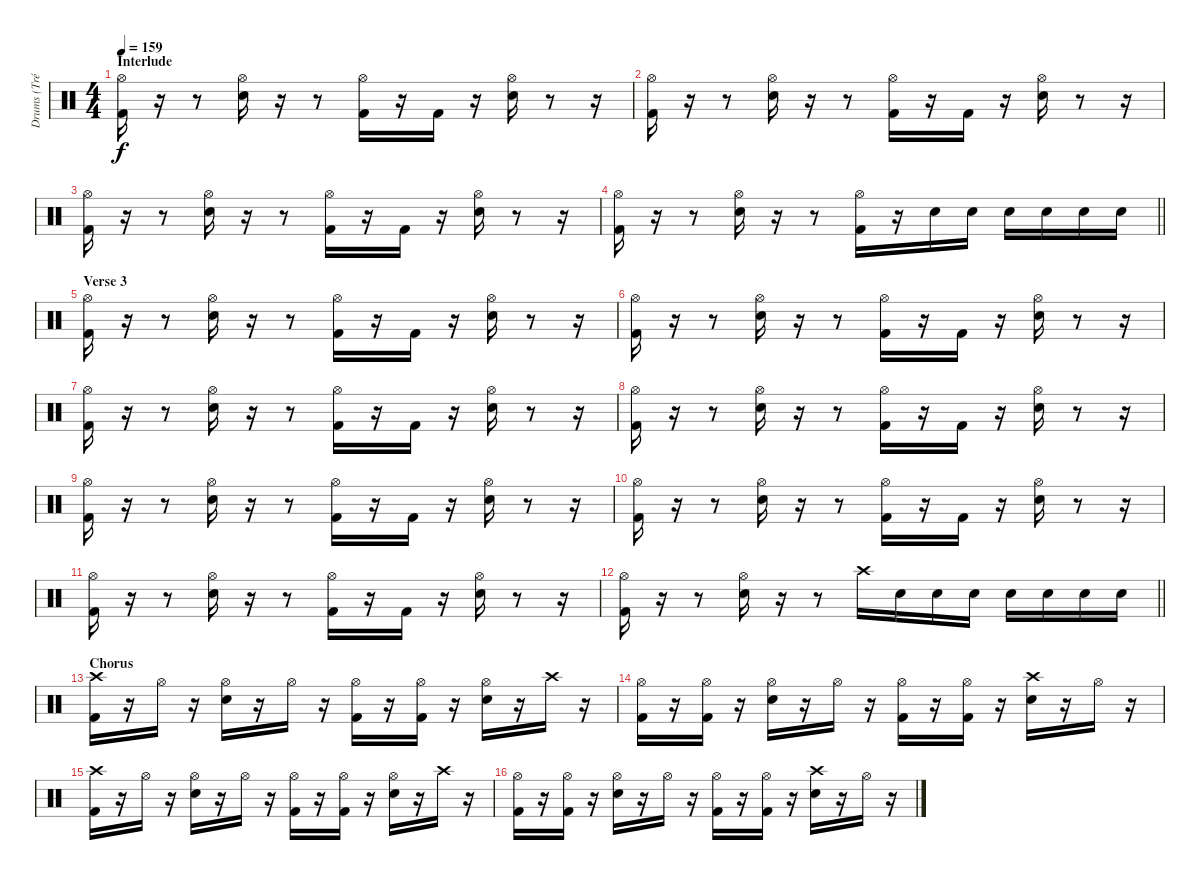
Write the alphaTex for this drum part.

\track ("Drums (Tré Cool)" "Drums (Tré") {instrument percussion}
\staff {score}
\articulation defaults
\ts (4 4)
\section ("" "Interlude")
\tempo 159
\clef neutral
\ks c
("Hi-Hat (open)" "Kick (hit) 2").16{dy f} r.16 r.8 ("Hi-Hat (open)" "Electric Snare (hit)").16 r.16 r.8 ("Hi-Hat (open)" "Kick (hit) 2").16 r.16 "Kick (hit) 2".16 r.16 ("Hi-Hat (open)" "Electric Snare (hit)").16 r.8 r.16 |
("Hi-Hat (open)" "Kick (hit) 2").16 r.16 r.8 ("Hi-Hat (open)" "Electric Snare (hit)").16 r.16 r.8 ("Hi-Hat (open)" "Kick (hit) 2").16 r.16 "Kick (hit) 2".16 r.16 ("Hi-Hat (open)" "Electric Snare (hit)").16 r.8 r.16 |
("Hi-Hat (open)" "Kick (hit) 2").16 r.16 r.8 ("Hi-Hat (open)" "Electric Snare (hit)").16 r.16 r.8 ("Hi-Hat (open)" "Kick (hit) 2").16 r.16 "Kick (hit) 2".16 r.16 ("Hi-Hat (open)" "Electric Snare (hit)").16 r.8 r.16 |
\barLineRight lightlight
("Hi-Hat (open)" "Kick (hit) 2").16 r.16 r.8 ("Hi-Hat (open)" "Electric Snare (hit)").16 r.16 r.8 ("Hi-Hat (open)" "Kick (hit) 2").16 r.16 "Electric Snare (hit)".16 "Electric Snare (hit)".16 "Electric Snare (hit)".16 "Electric Snare (hit)".16 "Electric Snare (hit)".16 "Electric Snare (hit)".16 |
\section ("" "Verse 3")
("Hi-Hat (open)" "Kick (hit) 2").16 r.16 r.8 ("Hi-Hat (open)" "Electric Snare (hit)").16 r.16 r.8 ("Hi-Hat (open)" "Kick (hit) 2").16 r.16 "Kick (hit) 2".16 r.16 ("Hi-Hat (open)" "Electric Snare (hit)").16 r.8 r.16 |
("Hi-Hat (open)" "Kick (hit) 2").16 r.16 r.8 ("Hi-Hat (open)" "Electric Snare (hit)").16 r.16 r.8 ("Hi-Hat (open)" "Kick (hit) 2").16 r.16 "Kick (hit) 2".16 r.16 ("Hi-Hat (open)" "Electric Snare (hit)").16 r.8 r.16 |
("Hi-Hat (open)" "Kick (hit) 2").16 r.16 r.8 ("Hi-Hat (open)" "Electric Snare (hit)").16 r.16 r.8 ("Hi-Hat (open)" "Kick (hit) 2").16 r.16 "Kick (hit) 2".16 r.16 ("Hi-Hat (open)" "Electric Snare (hit)").16 r.8 r.16 |
("Hi-Hat (open)" "Kick (hit) 2").16 r.16 r.8 ("Hi-Hat (open)" "Electric Snare (hit)").16 r.16 r.8 ("Hi-Hat (open)" "Kick (hit) 2").16 r.16 "Kick (hit) 2".16 r.16 ("Hi-Hat (open)" "Electric Snare (hit)").16 r.8 r.16 |
("Hi-Hat (open)" "Kick (hit) 2").16 r.16 r.8 ("Hi-Hat (open)" "Electric Snare (hit)").16 r.16 r.8 ("Hi-Hat (open)" "Kick (hit) 2").16 r.16 "Kick (hit) 2".16 r.16 ("Hi-Hat (open)" "Electric Snare (hit)").16 r.8 r.16 |
("Hi-Hat (open)" "Kick (hit) 2").16 r.16 r.8 ("Hi-Hat (open)" "Electric Snare (hit)").16 r.16 r.8 ("Hi-Hat (open)" "Kick (hit) 2").16 r.16 "Kick (hit) 2".16 r.16 ("Hi-Hat (open)" "Electric Snare (hit)").16 r.8 r.16 |
("Hi-Hat (open)" "Kick (hit) 2").16 r.16 r.8 ("Hi-Hat (open)" "Electric Snare (hit)").16 r.16 r.8 ("Hi-Hat (open)" "Kick (hit) 2").16 r.16 "Kick (hit) 2".16 r.16 ("Hi-Hat (open)" "Electric Snare (hit)").16 r.8 r.16 |
\barLineRight lightlight
("Hi-Hat (open)" "Kick (hit) 2").16 r.16 r.8 ("Hi-Hat (open)" "Electric Snare (hit)").16 r.16 r.8 "Crash high (hit)".16 "Electric Snare (hit)".16 "Electric Snare (hit)".16 "Electric Snare (hit)".16 "Electric Snare (hit)".16 "Electric Snare (hit)".16 "Electric Snare (hit)".16 "Electric Snare (hit)".16 |
\section ("" "Chorus")
("Crash high (hit)" "Kick (hit) 2").16 r.16 "Hi-Hat (open)".16 r.16 ("Hi-Hat (open)" "Electric Snare (hit)").16 r.16 "Hi-Hat (open)".16 r.16 ("Hi-Hat (open)" "Kick (hit) 2").16 r.16 ("Hi-Hat (open)" "Kick (hit) 2").16 r.16 ("Hi-Hat (open)" "Electric Snare (hit)").16 r.16 "Crash high (hit)".16 r.16 |
("Hi-Hat (open)" "Kick (hit) 2").16 r.16 ("Hi-Hat (open)" "Kick (hit) 2").16 r.16 ("Hi-Hat (open)" "Electric Snare (hit)").16 r.16 "Hi-Hat (open)".16 r.16 ("Hi-Hat (open)" "Kick (hit) 2").16 r.16 ("Hi-Hat (open)" "Kick (hit) 2").16 r.16 ("Crash high (hit)" "Electric Snare (hit)").16 r.16 "Hi-Hat (open)".16 r.16 |
("Crash high (hit)" "Kick (hit) 2").16 r.16 "Hi-Hat (open)".16 r.16 ("Hi-Hat (open)" "Electric Snare (hit)").16 r.16 "Hi-Hat (open)".16 r.16 ("Hi-Hat (open)" "Kick (hit) 2").16 r.16 ("Hi-Hat (open)" "Kick (hit) 2").16 r.16 ("Hi-Hat (open)" "Electric Snare (hit)").16 r.16 "Crash high (hit)".16 r.16 |
("Hi-Hat (open)" "Kick (hit) 2").16 r.16 ("Hi-Hat (open)" "Kick (hit) 2").16 r.16 ("Hi-Hat (open)" "Electric Snare (hit)").16 r.16 "Hi-Hat (open)".16 r.16 ("Hi-Hat (open)" "Kick (hit) 2").16 r.16 ("Hi-Hat (open)" "Kick (hit) 2").16 r.16 ("Crash high (hit)" "Electric Snare (hit)").16 r.16 "Hi-Hat (open)".16 r.16
